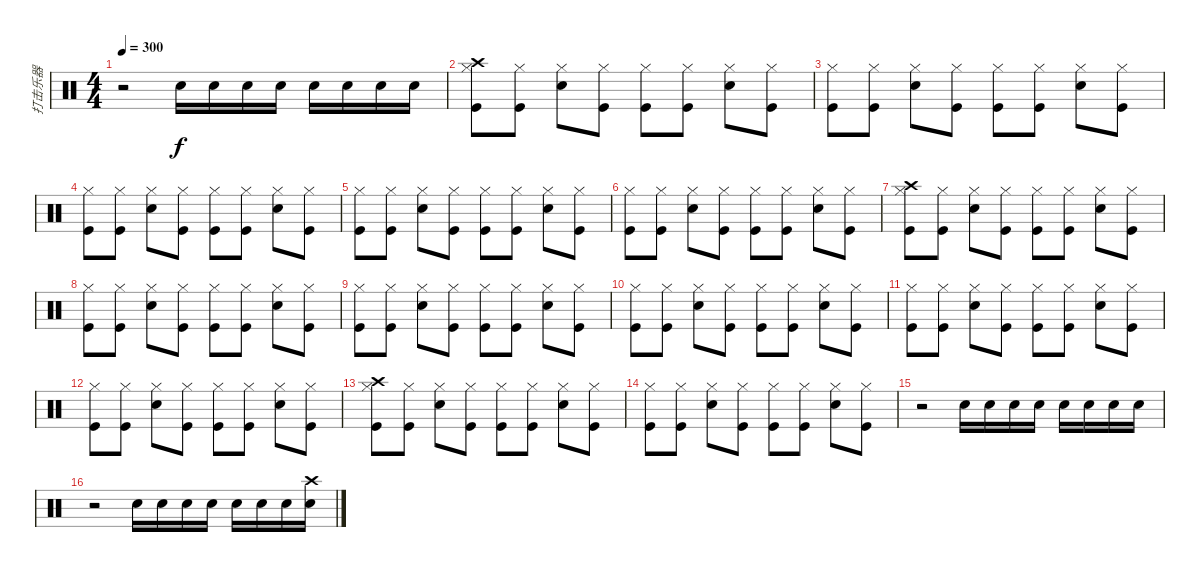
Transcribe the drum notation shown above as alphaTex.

\track ("打击乐器" "打击乐器") {instrument percussion}
\staff {score}
\articulation defaults
\ts (4 4)
\tempo 300
\clef neutral
\ks c
r.2{dy f} "Snare (hit) 2".16 "Snare (hit) 2".16 "Snare (hit) 2".16 "Snare (hit) 2".16 "Snare (hit) 2".16 "Snare (hit) 2".16 "Snare (hit) 2".16 "Snare (hit) 2".16 |
("Crash high (hit)" "Hi-Hat (closed)" "Kick (hit)").8 ("Hi-Hat (closed)" "Kick (hit)").8 ("Hi-Hat (closed)" "Snare (hit) 2").8 ("Hi-Hat (closed)" "Kick (hit)").8 ("Hi-Hat (closed)" "Kick (hit)").8 ("Hi-Hat (closed)" "Kick (hit)").8 ("Hi-Hat (closed)" "Snare (hit) 2").8 ("Hi-Hat (closed)" "Kick (hit)").8 |
("Hi-Hat (closed)" "Kick (hit)").8 ("Hi-Hat (closed)" "Kick (hit)").8 ("Hi-Hat (closed)" "Snare (hit) 2").8 ("Hi-Hat (closed)" "Kick (hit)").8 ("Hi-Hat (closed)" "Kick (hit)").8 ("Hi-Hat (closed)" "Kick (hit)").8 ("Hi-Hat (closed)" "Snare (hit) 2").8 ("Hi-Hat (closed)" "Kick (hit)").8 |
("Hi-Hat (closed)" "Kick (hit)").8 ("Hi-Hat (closed)" "Kick (hit)").8 ("Hi-Hat (closed)" "Snare (hit) 2").8 ("Hi-Hat (closed)" "Kick (hit)").8 ("Hi-Hat (closed)" "Kick (hit)").8 ("Hi-Hat (closed)" "Kick (hit)").8 ("Hi-Hat (closed)" "Snare (hit) 2").8 ("Hi-Hat (closed)" "Kick (hit)").8 |
("Hi-Hat (closed)" "Kick (hit)").8 ("Hi-Hat (closed)" "Kick (hit)").8 ("Hi-Hat (closed)" "Snare (hit) 2").8 ("Hi-Hat (closed)" "Kick (hit)").8 ("Hi-Hat (closed)" "Kick (hit)").8 ("Hi-Hat (closed)" "Kick (hit)").8 ("Hi-Hat (closed)" "Snare (hit) 2").8 ("Hi-Hat (closed)" "Kick (hit)").8 |
("Hi-Hat (closed)" "Kick (hit)").8 ("Hi-Hat (closed)" "Kick (hit)").8 ("Hi-Hat (closed)" "Snare (hit) 2").8 ("Hi-Hat (closed)" "Kick (hit)").8 ("Hi-Hat (closed)" "Kick (hit)").8 ("Hi-Hat (closed)" "Kick (hit)").8 ("Hi-Hat (closed)" "Snare (hit) 2").8 ("Hi-Hat (closed)" "Kick (hit)").8 |
("Crash high (hit)" "Hi-Hat (closed)" "Kick (hit)").8 ("Hi-Hat (closed)" "Kick (hit)").8 ("Hi-Hat (closed)" "Snare (hit) 2").8 ("Hi-Hat (closed)" "Kick (hit)").8 ("Hi-Hat (closed)" "Kick (hit)").8 ("Hi-Hat (closed)" "Kick (hit)").8 ("Hi-Hat (closed)" "Snare (hit) 2").8 ("Hi-Hat (closed)" "Kick (hit)").8 |
("Hi-Hat (closed)" "Kick (hit)").8 ("Hi-Hat (closed)" "Kick (hit)").8 ("Hi-Hat (closed)" "Snare (hit) 2").8 ("Hi-Hat (closed)" "Kick (hit)").8 ("Hi-Hat (closed)" "Kick (hit)").8 ("Hi-Hat (closed)" "Kick (hit)").8 ("Hi-Hat (closed)" "Snare (hit) 2").8 ("Hi-Hat (closed)" "Kick (hit)").8 |
("Hi-Hat (closed)" "Kick (hit)").8 ("Hi-Hat (closed)" "Kick (hit)").8 ("Hi-Hat (closed)" "Snare (hit) 2").8 ("Hi-Hat (closed)" "Kick (hit)").8 ("Hi-Hat (closed)" "Kick (hit)").8 ("Hi-Hat (closed)" "Kick (hit)").8 ("Hi-Hat (closed)" "Snare (hit) 2").8 ("Hi-Hat (closed)" "Kick (hit)").8 |
("Hi-Hat (closed)" "Kick (hit)").8 ("Hi-Hat (closed)" "Kick (hit)").8 ("Hi-Hat (closed)" "Snare (hit) 2").8 ("Hi-Hat (closed)" "Kick (hit)").8 ("Hi-Hat (closed)" "Kick (hit)").8 ("Hi-Hat (closed)" "Kick (hit)").8 ("Hi-Hat (closed)" "Snare (hit) 2").8 ("Hi-Hat (closed)" "Kick (hit)").8 |
("Hi-Hat (closed)" "Kick (hit)").8 ("Hi-Hat (closed)" "Kick (hit)").8 ("Hi-Hat (closed)" "Snare (hit) 2").8 ("Hi-Hat (closed)" "Kick (hit)").8 ("Hi-Hat (closed)" "Kick (hit)").8 ("Hi-Hat (closed)" "Kick (hit)").8 ("Hi-Hat (closed)" "Snare (hit) 2").8 ("Hi-Hat (closed)" "Kick (hit)").8 |
("Hi-Hat (closed)" "Kick (hit)").8 ("Hi-Hat (closed)" "Kick (hit)").8 ("Hi-Hat (closed)" "Snare (hit) 2").8 ("Hi-Hat (closed)" "Kick (hit)").8 ("Hi-Hat (closed)" "Kick (hit)").8 ("Hi-Hat (closed)" "Kick (hit)").8 ("Hi-Hat (closed)" "Snare (hit) 2").8 ("Hi-Hat (closed)" "Kick (hit)").8 |
("Crash high (hit)" "Hi-Hat (closed)" "Kick (hit)").8 ("Hi-Hat (closed)" "Kick (hit)").8 ("Hi-Hat (closed)" "Snare (hit) 2").8 ("Hi-Hat (closed)" "Kick (hit)").8 ("Hi-Hat (closed)" "Kick (hit)").8 ("Hi-Hat (closed)" "Kick (hit)").8 ("Hi-Hat (closed)" "Snare (hit) 2").8 ("Hi-Hat (closed)" "Kick (hit)").8 |
("Hi-Hat (closed)" "Kick (hit)").8 ("Hi-Hat (closed)" "Kick (hit)").8 ("Hi-Hat (closed)" "Snare (hit) 2").8 ("Hi-Hat (closed)" "Kick (hit)").8 ("Hi-Hat (closed)" "Kick (hit)").8 ("Hi-Hat (closed)" "Kick (hit)").8 ("Hi-Hat (closed)" "Snare (hit) 2").8 ("Hi-Hat (closed)" "Kick (hit)").8 |
r.2 "Snare (hit) 2".16 "Snare (hit) 2".16 "Snare (hit) 2".16 "Snare (hit) 2".16 "Snare (hit) 2".16 "Snare (hit) 2".16 "Snare (hit) 2".16 "Snare (hit) 2".16 |
r.2 "Snare (hit) 2".16 "Snare (hit) 2".16 "Snare (hit) 2".16 "Snare (hit) 2".16 "Snare (hit) 2".16 "Snare (hit) 2".16 "Snare (hit) 2".16 ("Crash high (hit)" "Snare (hit) 2").16
